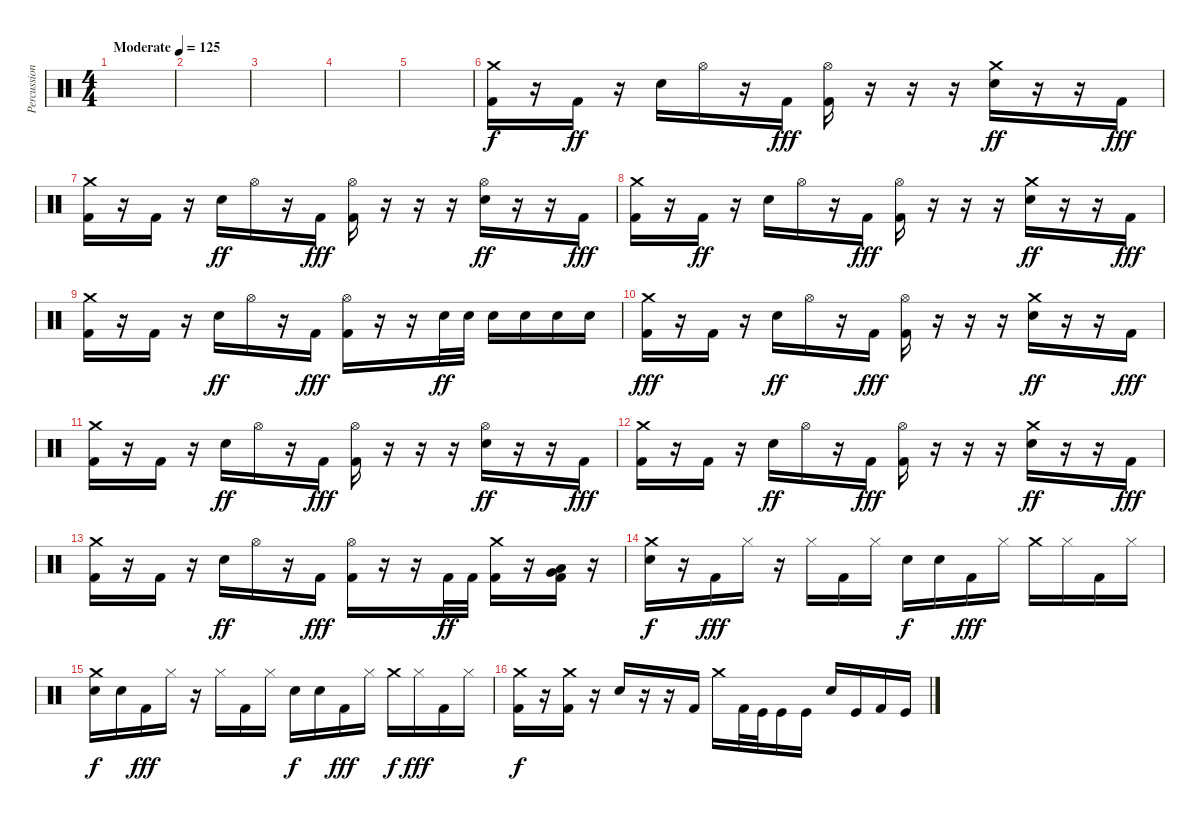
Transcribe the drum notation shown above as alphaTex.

\track ("Percussion" "Percussion") {instrument percussion}
\staff {score}
\articulation defaults
\ts (4 4)
\tempo (125 "Moderate")
\clef neutral
\ks c
|
|
|
|
|
("Crash medium (hit)" "Kick (hit) 2").16 r.16 "Kick (hit) 2".16{dy ff} r.16 "Electric Snare (hit)".16 "Hi-Hat (open)".16 r.16 "Kick (hit) 2".16{dy fff} ("Hi-Hat (open)" "Kick (hit) 2").16 r.16 r.16 r.16 ("Crash medium (hit)" "Electric Snare (hit)").16{dy ff} r.16 r.16 "Kick (hit) 2".16{dy fff} |
("Crash medium (hit)" "Kick (hit) 2").16 r.16 "Kick (hit) 2".16 r.16 "Electric Snare (hit)".16{dy ff} "Hi-Hat (open)".16 r.16 "Kick (hit) 2".16{dy fff} ("Hi-Hat (open)" "Kick (hit) 2").16 r.16 r.16 r.16 ("Hi-Hat (open)" "Electric Snare (hit)").16{dy ff} r.16 r.16 "Kick (hit) 2".16{dy fff} |
("Crash medium (hit)" "Kick (hit) 2").16 r.16 "Kick (hit) 2".16{dy ff} r.16 "Electric Snare (hit)".16 "Hi-Hat (open)".16 r.16 "Kick (hit) 2".16{dy fff} ("Hi-Hat (open)" "Kick (hit) 2").16 r.16 r.16 r.16 ("Crash medium (hit)" "Electric Snare (hit)").16{dy ff} r.16 r.16 "Kick (hit) 2".16{dy fff} |
("Crash medium (hit)" "Kick (hit) 2").16 r.16 "Kick (hit) 2".16 r.16 "Electric Snare (hit)".16{dy ff} "Hi-Hat (open)".16 r.16 "Kick (hit) 2".16{dy fff} ("Hi-Hat (open)" "Kick (hit) 2").16 r.16 r.16 "Electric Snare (hit)".32{dy ff} "Electric Snare (hit)".32 "Electric Snare (hit)".16 "Electric Snare (hit)".16 "Electric Snare (hit)".16 "Electric Snare (hit)".16 |
("Crash medium (hit)" "Kick (hit) 2").16{dy fff} r.16 "Kick (hit) 2".16 r.16 "Electric Snare (hit)".16{dy ff} "Hi-Hat (open)".16 r.16 "Kick (hit) 2".16{dy fff} ("Hi-Hat (open)" "Kick (hit) 2").16 r.16 r.16 r.16 ("Crash medium (hit)" "Electric Snare (hit)").16{dy ff} r.16 r.16 "Kick (hit) 2".16{dy fff} |
("Crash medium (hit)" "Kick (hit) 2").16 r.16 "Kick (hit) 2".16 r.16 "Electric Snare (hit)".16{dy ff} "Hi-Hat (open)".16 r.16 "Kick (hit) 2".16{dy fff} ("Hi-Hat (open)" "Kick (hit) 2").16 r.16 r.16 r.16 ("Hi-Hat (open)" "Electric Snare (hit)").16{dy ff} r.16 r.16 "Kick (hit) 2".16{dy fff} |
("Crash medium (hit)" "Kick (hit) 2").16 r.16 "Kick (hit) 2".16 r.16 "Electric Snare (hit)".16{dy ff} "Hi-Hat (open)".16 r.16 "Kick (hit) 2".16{dy fff} ("Hi-Hat (open)" "Kick (hit) 2").16 r.16 r.16 r.16 ("Crash medium (hit)" "Electric Snare (hit)").16{dy ff} r.16 r.16 "Kick (hit) 2".16{dy fff} |
("Crash medium (hit)" "Kick (hit) 2").16 r.16 "Kick (hit) 2".16 r.16 "Electric Snare (hit)".16{dy ff} "Hi-Hat (open)".16 r.16 "Kick (hit) 2".16{dy fff} ("Hi-Hat (open)" "Kick (hit) 2").16 r.16 r.16 "Kick (hit) 2".32{dy ff} "Kick (hit) 2".32 ("Crash medium (hit)" "Kick (hit) 2").16 r.16 ("Low Tom (hit)" "Very Low Tom (hit)" "Kick (hit) 2").16 r.16 |
("Crash medium (hit)" "Electric Snare (hit)").16{dy f} r.16 "Kick (hit) 2".16{dy fff} "Hi-Hat (closed)".16 r.16 "Hi-Hat (closed)".16 "Kick (hit) 2".16 "Hi-Hat (closed)".16 "Electric Snare (hit)".16{dy f} "Electric Snare (hit)".16 "Kick (hit) 2".16{dy fff} "Hi-Hat (closed)".16 "Crash medium (hit)".16 "Hi-Hat (closed)".16 "Kick (hit) 2".16 "Hi-Hat (closed)".16 |
("Crash medium (hit)" "Electric Snare (hit)").16{dy f} "Electric Snare (hit)".16 "Kick (hit) 2".16{dy fff} "Hi-Hat (closed)".16 r.16 "Hi-Hat (closed)".16 "Kick (hit) 2".16 "Hi-Hat (closed)".16 "Electric Snare (hit)".16{dy f} "Electric Snare (hit)".16 "Kick (hit) 2".16{dy fff} "Hi-Hat (closed)".16 "Crash medium (hit)".16{dy f} "Hi-Hat (closed)".16{dy fff} "Kick (hit) 2".16 "Hi-Hat (closed)".16 |
("Crash medium (hit)" "Kick (hit) 2").16{dy f} r.16 ("Crash medium (hit)" "Kick (hit) 2").16 r.16 "Electric Snare (hit)".16 r.16 r.16 "Kick (hit) 2".16 "Crash medium (hit)".16 "Kick (hit) 2".32 "Kick (hit)".32 "Kick (hit)".16 "Kick (hit)".16 "Electric Snare (hit)".16 "Kick (hit)".16 "Kick (hit) 2".16 "Kick (hit)".16
